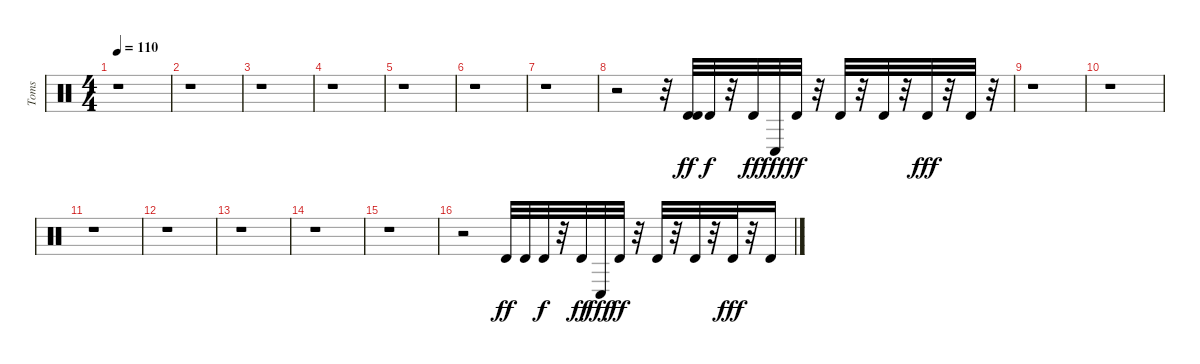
\track ("Toms" "Toms") {instrument percussion}
\staff {score}
\articulation defaults
\ts (4 4)
\tempo 110
\clef neutral
\ks c
r.1{dy fff} |
r.1 |
r.1 |
r.1 |
r.1 |
r.1 |
r.1 |
r.2 r.32 ("Timbale high (hit)" "Timbale high (hit)").32{dy ff} "Timbale high (hit)".32{dy f} r.32 "Timbale high (hit)".32{dy ff} "Conga low (hit)".32{dy fff} "Timbale high (hit)".32{dy ff} r.32 "Timbale high (hit)".32 r.32 "Timbale high (hit)".32 r.32 "Timbale high (hit)".32{dy fff} r.32 "Timbale high (hit)".32 r.32 |
r.1 |
r.1 |
r.1 |
r.1 |
r.1 |
r.1 |
r.1 |
r.2 "Timbale high (hit)".32{dy ff} "Timbale high (hit)".32 "Timbale high (hit)".32{dy f} r.32 "Timbale high (hit)".32{dy ff} "Conga low (hit)".32{dy fff} "Timbale high (hit)".32{dy ff} r.32 "Timbale high (hit)".32 r.32 "Timbale high (hit)".32 r.32 "Timbale high (hit)".32{dy fff} r.32 "Timbale high (hit)".16
